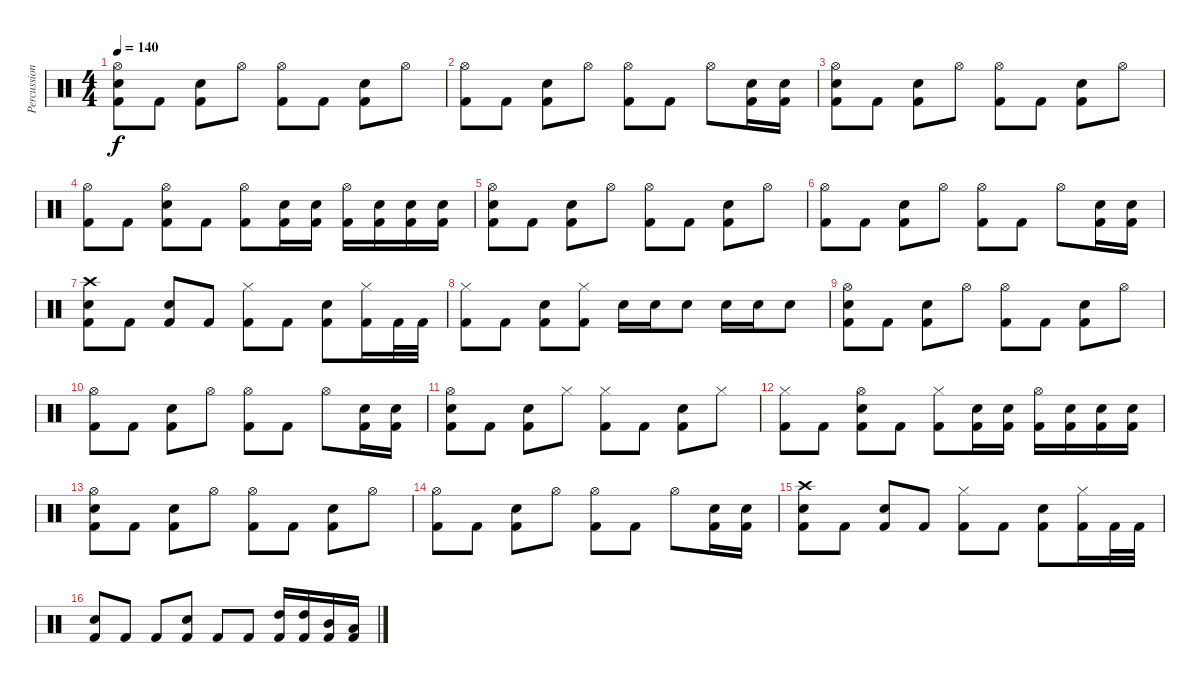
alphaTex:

\track ("Percussions" "Percussion") {instrument percussion}
\staff {score}
\articulation defaults
\ts (4 4)
\tempo 140
\clef neutral
\ks c
("Hi-Hat (open)" "Snare (hit) 2" "Kick (hit) 2").8{dy f} "Kick (hit) 2".8 ("Snare (hit) 2" "Kick (hit) 2").8 "Hi-Hat (open)".8 ("Hi-Hat (open)" "Kick (hit) 2").8 "Kick (hit) 2".8 ("Snare (hit) 2" "Kick (hit) 2").8 "Hi-Hat (open)".8 |
("Hi-Hat (open)" "Kick (hit) 2").8 "Kick (hit) 2".8 ("Snare (hit) 2" "Kick (hit) 2").8 "Hi-Hat (open)".8 ("Hi-Hat (open)" "Kick (hit) 2").8 "Kick (hit) 2".8 "Hi-Hat (open)".8 ("Snare (hit) 2" "Kick (hit) 2").16 ("Snare (hit) 2" "Kick (hit) 2").16 |
("Hi-Hat (open)" "Snare (hit) 2" "Kick (hit) 2").8 "Kick (hit) 2".8 ("Snare (hit) 2" "Kick (hit) 2").8 "Hi-Hat (open)".8 ("Hi-Hat (open)" "Kick (hit) 2").8 "Kick (hit) 2".8 ("Snare (hit) 2" "Kick (hit) 2").8 "Hi-Hat (open)".8 |
("Hi-Hat (open)" "Kick (hit) 2").8 "Kick (hit) 2".8 ("Hi-Hat (open)" "Snare (hit) 2" "Kick (hit) 2").8 "Kick (hit) 2".8 ("Hi-Hat (open)" "Kick (hit) 2").8 ("Snare (hit) 2" "Kick (hit) 2").16 ("Snare (hit) 2" "Kick (hit) 2").16 ("Hi-Hat (open)" "Kick (hit) 2").16 ("Snare (hit) 2" "Kick (hit) 2").16 ("Snare (hit) 2" "Kick (hit) 2").16 ("Snare (hit) 2" "Kick (hit) 2").16 |
("Hi-Hat (open)" "Snare (hit) 2" "Kick (hit) 2").8 "Kick (hit) 2".8 ("Snare (hit) 2" "Kick (hit) 2").8 "Hi-Hat (open)".8 ("Hi-Hat (open)" "Kick (hit) 2").8 "Kick (hit) 2".8 ("Snare (hit) 2" "Kick (hit) 2").8 "Hi-Hat (open)".8 |
("Hi-Hat (open)" "Kick (hit) 2").8 "Kick (hit) 2".8 ("Snare (hit) 2" "Kick (hit) 2").8 "Hi-Hat (open)".8 ("Hi-Hat (open)" "Kick (hit) 2").8 "Kick (hit) 2".8 "Hi-Hat (open)".8 ("Snare (hit) 2" "Kick (hit) 2").16 ("Snare (hit) 2" "Kick (hit) 2").16 |
("Crash high (hit)" "Snare (hit) 2" "Kick (hit) 2").8 "Kick (hit) 2".8 ("Snare (hit) 2" "Kick (hit) 2").8 "Kick (hit) 2".8 ("Hi-Hat (closed)" "Kick (hit) 2").8 "Kick (hit) 2".8 ("Snare (hit) 2" "Kick (hit) 2").8 ("Hi-Hat (closed)" "Kick (hit) 2").16 "Kick (hit) 2".32 "Kick (hit) 2".32 |
("Hi-Hat (closed)" "Kick (hit) 2").8 "Kick (hit) 2".8 ("Snare (hit) 2" "Kick (hit) 2").8 ("Hi-Hat (closed)" "Kick (hit) 2").8 "Snare (hit) 2".16 "Snare (hit) 2".16 "Snare (hit) 2".8 "Snare (hit) 2".16 "Snare (hit) 2".16 "Snare (hit) 2".8 |
("Hi-Hat (open)" "Snare (hit) 2" "Kick (hit) 2").8 "Kick (hit) 2".8 ("Snare (hit) 2" "Kick (hit) 2").8 "Hi-Hat (open)".8 ("Hi-Hat (open)" "Kick (hit) 2").8 "Kick (hit) 2".8 ("Snare (hit) 2" "Kick (hit) 2").8 "Hi-Hat (open)".8 |
("Hi-Hat (open)" "Kick (hit) 2").8 "Kick (hit) 2".8 ("Snare (hit) 2" "Kick (hit) 2").8 "Hi-Hat (open)".8 ("Hi-Hat (open)" "Kick (hit) 2").8 "Kick (hit) 2".8 "Hi-Hat (open)".8 ("Snare (hit) 2" "Kick (hit) 2").16 ("Snare (hit) 2" "Kick (hit) 2").16 |
("Hi-Hat (open)" "Snare (hit) 2" "Kick (hit) 2").8 "Kick (hit) 2".8 ("Snare (hit) 2" "Kick (hit) 2").8 "Hi-Hat (closed)".8 ("Hi-Hat (closed)" "Kick (hit) 2").8 "Kick (hit) 2".8 ("Snare (hit) 2" "Kick (hit) 2").8 "Hi-Hat (closed)".8 |
("Hi-Hat (closed)" "Kick (hit) 2").8 "Kick (hit) 2".8 ("Hi-Hat (open)" "Snare (hit) 2" "Kick (hit) 2").8 "Kick (hit) 2".8 ("Hi-Hat (closed)" "Kick (hit) 2").8 ("Snare (hit) 2" "Kick (hit) 2").16 ("Snare (hit) 2" "Kick (hit) 2").16 ("Hi-Hat (open)" "Kick (hit) 2").16 ("Snare (hit) 2" "Kick (hit) 2").16 ("Snare (hit) 2" "Kick (hit) 2").16 ("Snare (hit) 2" "Kick (hit) 2").16 |
("Hi-Hat (open)" "Snare (hit) 2" "Kick (hit) 2").8 "Kick (hit) 2".8 ("Snare (hit) 2" "Kick (hit) 2").8 "Hi-Hat (open)".8 ("Hi-Hat (open)" "Kick (hit) 2").8 "Kick (hit) 2".8 ("Snare (hit) 2" "Kick (hit) 2").8 "Hi-Hat (open)".8 |
("Hi-Hat (open)" "Kick (hit) 2").8 "Kick (hit) 2".8 ("Snare (hit) 2" "Kick (hit) 2").8 "Hi-Hat (open)".8 ("Hi-Hat (open)" "Kick (hit) 2").8 "Kick (hit) 2".8 "Hi-Hat (open)".8 ("Snare (hit) 2" "Kick (hit) 2").16 ("Snare (hit) 2" "Kick (hit) 2").16 |
("Crash high (hit)" "Snare (hit) 2" "Kick (hit) 2").8 "Kick (hit) 2".8 ("Snare (hit) 2" "Kick (hit) 2").8 "Kick (hit) 2".8 ("Hi-Hat (closed)" "Kick (hit) 2").8 "Kick (hit) 2".8 ("Snare (hit) 2" "Kick (hit) 2").8 ("Hi-Hat (closed)" "Kick (hit) 2").16 "Kick (hit) 2".32 "Kick (hit) 2".32 |
("Snare (hit) 2" "Kick (hit) 2").8 "Kick (hit) 2".8 "Kick (hit) 2".8 ("Snare (hit) 2" "Kick (hit) 2").8 "Kick (hit) 2".8 "Kick (hit) 2".8 ("High Tom (hit)" "Kick (hit) 2").16 ("High Tom (hit)" "Kick (hit) 2").16 ("Mid Tom (hit)" "Kick (hit) 2").16 ("Low Tom (hit)" "Kick (hit) 2").16
